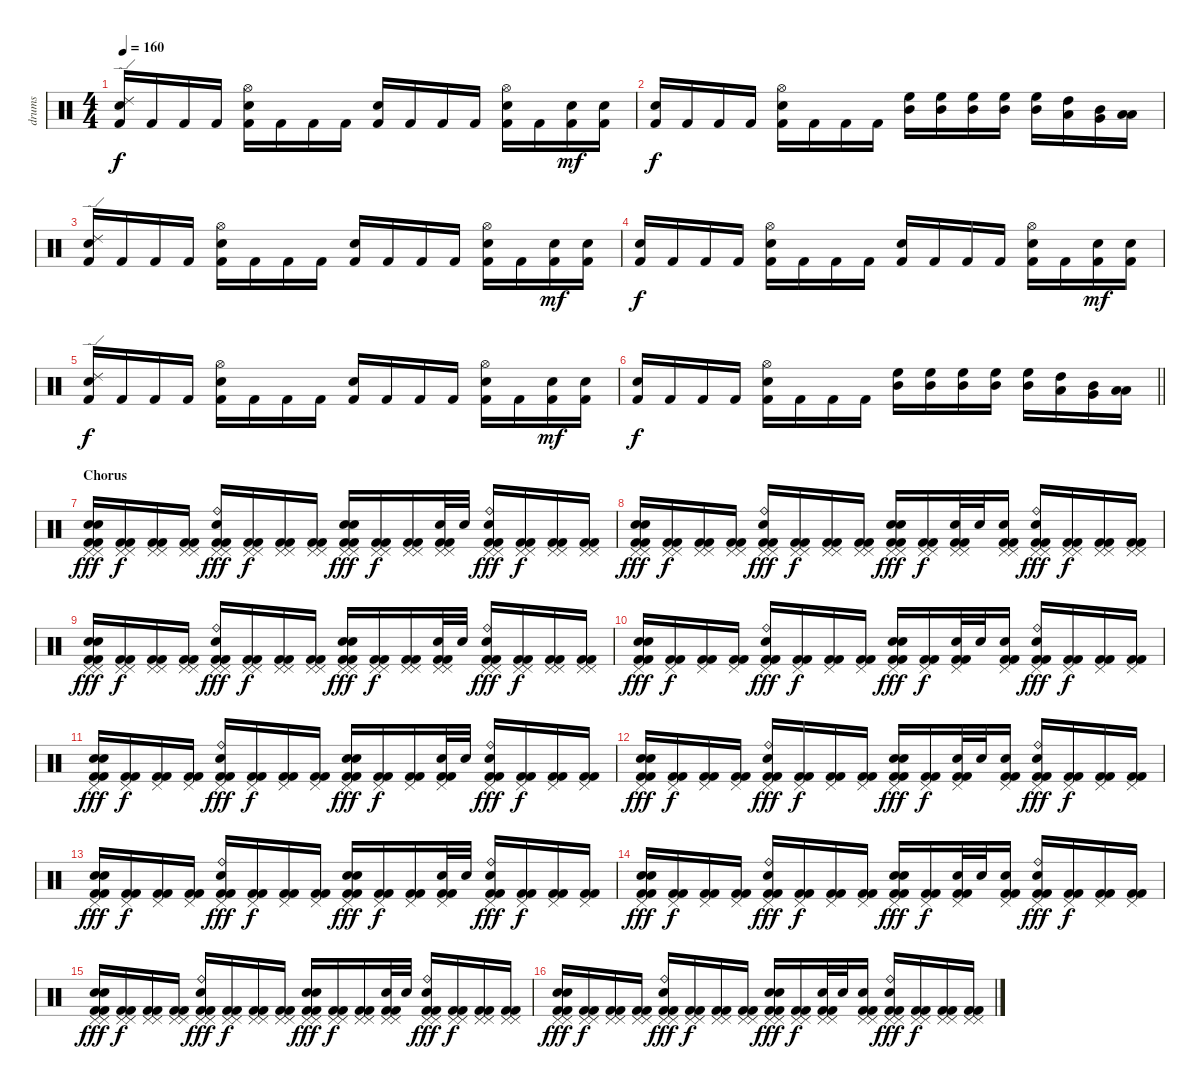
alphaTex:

\track ("drums" "drums") {instrument percussion}
\staff {score}
\articulation defaults
\ts (4 4)
\tempo 160
\clef neutral
\ks c
("Kick (hit) 2" "Electric Snare (hit)" "Ride (edge) 2").16{dy f} "Kick (hit) 2".16 "Kick (hit) 2".16 "Kick (hit) 2".16 ("Kick (hit) 2" "Electric Snare (hit)" "Hi-Hat (open)").16 "Kick (hit) 2".16 "Kick (hit) 2".16 "Kick (hit) 2".16 ("Kick (hit) 2" "Electric Snare (hit)").16 "Kick (hit) 2".16 "Kick (hit) 2".16 "Kick (hit) 2".16 ("Kick (hit) 2" "Electric Snare (hit)" "Hi-Hat (open)").16 "Kick (hit) 2".16 ("Kick (hit) 2" "Electric Snare (hit)").16{dy mf} ("Kick (hit) 2" "Electric Snare (hit)").16 |
("Kick (hit) 2" "Electric Snare (hit)").16{dy f} "Kick (hit) 2".16 "Kick (hit) 2".16 "Kick (hit) 2".16 ("Kick (hit) 2" "Electric Snare (hit)" "Hi-Hat (open)").16 "Kick (hit) 2".16 "Kick (hit) 2".16 "Kick (hit) 2".16 ("High Floor Tom (hit)" "Mid Tom (hit)").16 ("High Floor Tom (hit)" "Mid Tom (hit)").16 ("High Floor Tom (hit)" "Mid Tom (hit)").16 ("High Floor Tom (hit)" "Mid Tom (hit)").16 ("High Floor Tom (hit)" "Mid Tom (hit)").16 ("High Tom (hit)" "Low Tom (hit)").16 ("Mid Tom (hit)" "Very Low Tom (hit)").16 ("Low Tom (hit)" "Low Floor Tom (hit)").16 |
("Kick (hit) 2" "Electric Snare (hit)" "Ride (edge) 2").16 "Kick (hit) 2".16 "Kick (hit) 2".16 "Kick (hit) 2".16 ("Kick (hit) 2" "Electric Snare (hit)" "Hi-Hat (open)").16 "Kick (hit) 2".16 "Kick (hit) 2".16 "Kick (hit) 2".16 ("Kick (hit) 2" "Electric Snare (hit)").16 "Kick (hit) 2".16 "Kick (hit) 2".16 "Kick (hit) 2".16 ("Kick (hit) 2" "Electric Snare (hit)" "Hi-Hat (open)").16 "Kick (hit) 2".16 ("Kick (hit) 2" "Electric Snare (hit)").16{dy mf} ("Kick (hit) 2" "Electric Snare (hit)").16 |
("Kick (hit) 2" "Electric Snare (hit)").16{dy f} "Kick (hit) 2".16 "Kick (hit) 2".16 "Kick (hit) 2".16 ("Kick (hit) 2" "Electric Snare (hit)" "Hi-Hat (open)").16 "Kick (hit) 2".16 "Kick (hit) 2".16 "Kick (hit) 2".16 ("Kick (hit) 2" "Electric Snare (hit)").16 "Kick (hit) 2".16 "Kick (hit) 2".16 "Kick (hit) 2".16 ("Kick (hit) 2" "Electric Snare (hit)" "Hi-Hat (open)").16 "Kick (hit) 2".16 ("Kick (hit) 2" "Electric Snare (hit)").16{dy mf} ("Kick (hit) 2" "Electric Snare (hit)").16 |
("Kick (hit) 2" "Electric Snare (hit)" "Ride (edge) 2").16{dy f} "Kick (hit) 2".16 "Kick (hit) 2".16 "Kick (hit) 2".16 ("Kick (hit) 2" "Electric Snare (hit)" "Hi-Hat (open)").16 "Kick (hit) 2".16 "Kick (hit) 2".16 "Kick (hit) 2".16 ("Kick (hit) 2" "Electric Snare (hit)").16 "Kick (hit) 2".16 "Kick (hit) 2".16 "Kick (hit) 2".16 ("Kick (hit) 2" "Electric Snare (hit)" "Hi-Hat (open)").16 "Kick (hit) 2".16 ("Kick (hit) 2" "Electric Snare (hit)").16{dy mf} ("Kick (hit) 2" "Electric Snare (hit)").16 |
\barLineRight lightlight
("Kick (hit) 2" "Electric Snare (hit)").16{dy f} "Kick (hit) 2".16 "Kick (hit) 2".16 "Kick (hit) 2".16 ("Kick (hit) 2" "Electric Snare (hit)" "Hi-Hat (open)").16 "Kick (hit) 2".16 "Kick (hit) 2".16 "Kick (hit) 2".16 ("High Floor Tom (hit)" "Mid Tom (hit)").16 ("High Floor Tom (hit)" "Mid Tom (hit)").16 ("High Floor Tom (hit)" "Mid Tom (hit)").16 ("High Floor Tom (hit)" "Mid Tom (hit)").16 ("High Floor Tom (hit)" "Mid Tom (hit)").16 ("High Tom (hit)" "Low Tom (hit)").16 ("Mid Tom (hit)" "Very Low Tom (hit)").16 ("Low Tom (hit)" "Low Floor Tom (hit)").16 |
\section ("" "Chorus")
("Electric Snare (hit)" "Electric Snare (hit)" "Pedal Hi-Hat (hit)" "Pedal Hi-Hat (hit)" "Kick (hit) 2" "Kick (hit) 2").16{dy fff} ("Pedal Hi-Hat (hit)" "Pedal Hi-Hat (hit)" "Kick (hit) 2" "Kick (hit) 2").16{dy f} ("Pedal Hi-Hat (hit)" "Pedal Hi-Hat (hit)" "Kick (hit) 2" "Kick (hit) 2").16 ("Pedal Hi-Hat (hit)" "Pedal Hi-Hat (hit)" "Kick (hit) 2" "Kick (hit) 2").16 ("Ride (bell)" "Snare (hit) 2" "Pedal Hi-Hat (hit)" "Pedal Hi-Hat (hit)" "Kick (hit) 2" "Kick (hit) 2").16{dy fff} ("Pedal Hi-Hat (hit)" "Pedal Hi-Hat (hit)" "Kick (hit) 2" "Kick (hit) 2").16{dy f} ("Pedal Hi-Hat (hit)" "Pedal Hi-Hat (hit)" "Kick (hit) 2" "Kick (hit) 2").16 ("Pedal Hi-Hat (hit)" "Pedal Hi-Hat (hit)" "Kick (hit) 2" "Kick (hit) 2").16 ("Electric Snare (hit)" "Electric Snare (hit)" "Pedal Hi-Hat (hit)" "Pedal Hi-Hat (hit)" "Kick (hit) 2" "Kick (hit) 2").16{dy fff} ("Pedal Hi-Hat (hit)" "Pedal Hi-Hat (hit)" "Kick (hit) 2" "Kick (hit) 2").16{dy f} ("Pedal Hi-Hat (hit)" "Pedal Hi-Hat (hit)" "Kick (hit) 2" "Kick (hit) 2").16 ("Electric Snare (hit)" "Pedal Hi-Hat (hit)" "Pedal Hi-Hat (hit)" "Kick (hit) 2" "Kick (hit) 2").32 "Electric Snare (hit)".32 ("Ride (bell)" "Electric Snare (hit)" "Pedal Hi-Hat (hit)" "Pedal Hi-Hat (hit)" "Kick (hit) 2" "Kick (hit) 2").16{dy fff} ("Pedal Hi-Hat (hit)" "Pedal Hi-Hat (hit)" "Kick (hit) 2" "Kick (hit) 2").16{dy f} ("Pedal Hi-Hat (hit)" "Pedal Hi-Hat (hit)" "Kick (hit) 2" "Kick (hit) 2").16 ("Pedal Hi-Hat (hit)" "Pedal Hi-Hat (hit)" "Kick (hit) 2" "Kick (hit) 2").16 |
("Electric Snare (hit)" "Electric Snare (hit)" "Pedal Hi-Hat (hit)" "Pedal Hi-Hat (hit)" "Kick (hit) 2" "Kick (hit) 2").16{dy fff} ("Pedal Hi-Hat (hit)" "Pedal Hi-Hat (hit)" "Kick (hit) 2" "Kick (hit) 2").16{dy f} ("Pedal Hi-Hat (hit)" "Pedal Hi-Hat (hit)" "Kick (hit) 2" "Kick (hit) 2").16 ("Pedal Hi-Hat (hit)" "Pedal Hi-Hat (hit)" "Kick (hit) 2" "Kick (hit) 2").16 ("Ride (bell)" "Snare (hit) 2" "Pedal Hi-Hat (hit)" "Pedal Hi-Hat (hit)" "Kick (hit) 2" "Kick (hit) 2").16{dy fff} ("Pedal Hi-Hat (hit)" "Pedal Hi-Hat (hit)" "Kick (hit) 2" "Kick (hit) 2").16{dy f} ("Pedal Hi-Hat (hit)" "Pedal Hi-Hat (hit)" "Kick (hit) 2" "Kick (hit) 2").16 ("Pedal Hi-Hat (hit)" "Pedal Hi-Hat (hit)" "Kick (hit) 2" "Kick (hit) 2").16 ("Electric Snare (hit)" "Electric Snare (hit)" "Pedal Hi-Hat (hit)" "Pedal Hi-Hat (hit)" "Kick (hit) 2" "Kick (hit) 2").16{dy fff} ("Pedal Hi-Hat (hit)" "Pedal Hi-Hat (hit)" "Kick (hit) 2" "Kick (hit) 2").16{dy f} ("Electric Snare (hit)" "Pedal Hi-Hat (hit)" "Pedal Hi-Hat (hit)" "Kick (hit) 2" "Kick (hit) 2").32 "Electric Snare (hit)".32 ("Electric Snare (hit)" "Pedal Hi-Hat (hit)" "Pedal Hi-Hat (hit)" "Kick (hit) 2" "Kick (hit) 2").16 ("Ride (bell)" "Snare (hit) 2" "Pedal Hi-Hat (hit)" "Pedal Hi-Hat (hit)" "Kick (hit) 2" "Kick (hit) 2").16{dy fff} ("Pedal Hi-Hat (hit)" "Pedal Hi-Hat (hit)" "Kick (hit) 2" "Kick (hit) 2").16{dy f} ("Pedal Hi-Hat (hit)" "Pedal Hi-Hat (hit)" "Kick (hit) 2" "Kick (hit) 2").16 ("Pedal Hi-Hat (hit)" "Pedal Hi-Hat (hit)" "Kick (hit) 2" "Kick (hit) 2").16 |
("Electric Snare (hit)" "Electric Snare (hit)" "Pedal Hi-Hat (hit)" "Pedal Hi-Hat (hit)" "Kick (hit) 2" "Kick (hit) 2").16{dy fff} ("Pedal Hi-Hat (hit)" "Pedal Hi-Hat (hit)" "Kick (hit) 2" "Kick (hit) 2").16{dy f} ("Pedal Hi-Hat (hit)" "Pedal Hi-Hat (hit)" "Kick (hit) 2" "Kick (hit) 2").16 ("Pedal Hi-Hat (hit)" "Pedal Hi-Hat (hit)" "Kick (hit) 2" "Kick (hit) 2").16 ("Ride (bell)" "Snare (hit) 2" "Pedal Hi-Hat (hit)" "Pedal Hi-Hat (hit)" "Kick (hit) 2" "Kick (hit) 2").16{dy fff} ("Pedal Hi-Hat (hit)" "Pedal Hi-Hat (hit)" "Kick (hit) 2" "Kick (hit) 2").16{dy f} ("Pedal Hi-Hat (hit)" "Pedal Hi-Hat (hit)" "Kick (hit) 2" "Kick (hit) 2").16 ("Pedal Hi-Hat (hit)" "Pedal Hi-Hat (hit)" "Kick (hit) 2" "Kick (hit) 2").16 ("Electric Snare (hit)" "Electric Snare (hit)" "Pedal Hi-Hat (hit)" "Pedal Hi-Hat (hit)" "Kick (hit) 2" "Kick (hit) 2").16{dy fff} ("Pedal Hi-Hat (hit)" "Pedal Hi-Hat (hit)" "Kick (hit) 2" "Kick (hit) 2").16{dy f} ("Pedal Hi-Hat (hit)" "Pedal Hi-Hat (hit)" "Kick (hit) 2" "Kick (hit) 2").16 ("Electric Snare (hit)" "Pedal Hi-Hat (hit)" "Pedal Hi-Hat (hit)" "Kick (hit) 2" "Kick (hit) 2").32 "Electric Snare (hit)".32 ("Ride (bell)" "Electric Snare (hit)" "Pedal Hi-Hat (hit)" "Pedal Hi-Hat (hit)" "Kick (hit) 2" "Kick (hit) 2").16{dy fff} ("Pedal Hi-Hat (hit)" "Pedal Hi-Hat (hit)" "Kick (hit) 2" "Kick (hit) 2").16{dy f} ("Pedal Hi-Hat (hit)" "Pedal Hi-Hat (hit)" "Kick (hit) 2" "Kick (hit) 2").16 ("Pedal Hi-Hat (hit)" "Pedal Hi-Hat (hit)" "Kick (hit) 2" "Kick (hit) 2").16 |
("Electric Snare (hit)" "Electric Snare (hit)" "Pedal Hi-Hat (hit)" "Kick (hit) 2" "Kick (hit) 2").16{dy fff} ("Pedal Hi-Hat (hit)" "Kick (hit) 2" "Kick (hit) 2").16{dy f} ("Pedal Hi-Hat (hit)" "Kick (hit) 2" "Kick (hit) 2").16 ("Pedal Hi-Hat (hit)" "Kick (hit) 2" "Kick (hit) 2").16 ("Ride (bell)" "Snare (hit) 2" "Pedal Hi-Hat (hit)" "Kick (hit) 2" "Kick (hit) 2").16{dy fff} ("Pedal Hi-Hat (hit)" "Kick (hit) 2" "Kick (hit) 2").16{dy f} ("Pedal Hi-Hat (hit)" "Kick (hit) 2" "Kick (hit) 2").16 ("Pedal Hi-Hat (hit)" "Kick (hit) 2" "Kick (hit) 2").16 ("Electric Snare (hit)" "Electric Snare (hit)" "Pedal Hi-Hat (hit)" "Kick (hit) 2" "Kick (hit) 2").16{dy fff} ("Pedal Hi-Hat (hit)" "Kick (hit) 2" "Kick (hit) 2").16{dy f} ("Electric Snare (hit)" "Pedal Hi-Hat (hit)" "Kick (hit) 2" "Kick (hit) 2").32 "Electric Snare (hit)".32 ("Electric Snare (hit)" "Pedal Hi-Hat (hit)" "Kick (hit) 2" "Kick (hit) 2").16 ("Ride (bell)" "Snare (hit) 2" "Pedal Hi-Hat (hit)" "Kick (hit) 2" "Kick (hit) 2").16{dy fff} ("Pedal Hi-Hat (hit)" "Kick (hit) 2" "Kick (hit) 2").16{dy f} ("Pedal Hi-Hat (hit)" "Kick (hit) 2" "Kick (hit) 2").16 ("Pedal Hi-Hat (hit)" "Kick (hit) 2" "Kick (hit) 2").16 |
("Electric Snare (hit)" "Electric Snare (hit)" "Pedal Hi-Hat (hit)" "Kick (hit) 2" "Kick (hit) 2").16{dy fff} ("Pedal Hi-Hat (hit)" "Kick (hit) 2" "Kick (hit) 2").16{dy f} ("Pedal Hi-Hat (hit)" "Kick (hit) 2" "Kick (hit) 2").16 ("Pedal Hi-Hat (hit)" "Kick (hit) 2" "Kick (hit) 2").16 ("Ride (bell)" "Snare (hit) 2" "Pedal Hi-Hat (hit)" "Kick (hit) 2" "Kick (hit) 2").16{dy fff} ("Pedal Hi-Hat (hit)" "Kick (hit) 2" "Kick (hit) 2").16{dy f} ("Pedal Hi-Hat (hit)" "Kick (hit) 2" "Kick (hit) 2").16 ("Pedal Hi-Hat (hit)" "Kick (hit) 2" "Kick (hit) 2").16 ("Electric Snare (hit)" "Electric Snare (hit)" "Pedal Hi-Hat (hit)" "Kick (hit) 2" "Kick (hit) 2").16{dy fff} ("Pedal Hi-Hat (hit)" "Kick (hit) 2" "Kick (hit) 2").16{dy f} ("Pedal Hi-Hat (hit)" "Kick (hit) 2" "Kick (hit) 2").16 ("Electric Snare (hit)" "Pedal Hi-Hat (hit)" "Kick (hit) 2" "Kick (hit) 2").32 "Electric Snare (hit)".32 ("Ride (bell)" "Electric Snare (hit)" "Pedal Hi-Hat (hit)" "Kick (hit) 2" "Kick (hit) 2").16{dy fff} ("Pedal Hi-Hat (hit)" "Kick (hit) 2" "Kick (hit) 2").16{dy f} ("Pedal Hi-Hat (hit)" "Kick (hit) 2" "Kick (hit) 2").16 ("Pedal Hi-Hat (hit)" "Kick (hit) 2" "Kick (hit) 2").16 |
("Electric Snare (hit)" "Electric Snare (hit)" "Pedal Hi-Hat (hit)" "Kick (hit) 2" "Kick (hit) 2").16{dy fff} ("Pedal Hi-Hat (hit)" "Kick (hit) 2" "Kick (hit) 2").16{dy f} ("Pedal Hi-Hat (hit)" "Kick (hit) 2" "Kick (hit) 2").16 ("Pedal Hi-Hat (hit)" "Kick (hit) 2" "Kick (hit) 2").16 ("Ride (bell)" "Snare (hit) 2" "Pedal Hi-Hat (hit)" "Kick (hit) 2" "Kick (hit) 2").16{dy fff} ("Pedal Hi-Hat (hit)" "Kick (hit) 2" "Kick (hit) 2").16{dy f} ("Pedal Hi-Hat (hit)" "Kick (hit) 2" "Kick (hit) 2").16 ("Pedal Hi-Hat (hit)" "Kick (hit) 2" "Kick (hit) 2").16 ("Electric Snare (hit)" "Electric Snare (hit)" "Pedal Hi-Hat (hit)" "Kick (hit) 2" "Kick (hit) 2").16{dy fff} ("Pedal Hi-Hat (hit)" "Kick (hit) 2" "Kick (hit) 2").16{dy f} ("Electric Snare (hit)" "Pedal Hi-Hat (hit)" "Kick (hit) 2" "Kick (hit) 2").32 "Electric Snare (hit)".32 ("Electric Snare (hit)" "Pedal Hi-Hat (hit)" "Kick (hit) 2" "Kick (hit) 2").16 ("Ride (bell)" "Snare (hit) 2" "Pedal Hi-Hat (hit)" "Kick (hit) 2" "Kick (hit) 2").16{dy fff} ("Pedal Hi-Hat (hit)" "Kick (hit) 2" "Kick (hit) 2").16{dy f} ("Pedal Hi-Hat (hit)" "Kick (hit) 2" "Kick (hit) 2").16 ("Pedal Hi-Hat (hit)" "Kick (hit) 2" "Kick (hit) 2").16 |
("Electric Snare (hit)" "Electric Snare (hit)" "Pedal Hi-Hat (hit)" "Kick (hit) 2" "Kick (hit) 2").16{dy fff} ("Pedal Hi-Hat (hit)" "Kick (hit) 2" "Kick (hit) 2").16{dy f} ("Pedal Hi-Hat (hit)" "Kick (hit) 2" "Kick (hit) 2").16 ("Pedal Hi-Hat (hit)" "Kick (hit) 2" "Kick (hit) 2").16 ("Ride (bell)" "Snare (hit) 2" "Pedal Hi-Hat (hit)" "Kick (hit) 2" "Kick (hit) 2").16{dy fff} ("Pedal Hi-Hat (hit)" "Kick (hit) 2" "Kick (hit) 2").16{dy f} ("Pedal Hi-Hat (hit)" "Kick (hit) 2" "Kick (hit) 2").16 ("Pedal Hi-Hat (hit)" "Kick (hit) 2" "Kick (hit) 2").16 ("Electric Snare (hit)" "Electric Snare (hit)" "Pedal Hi-Hat (hit)" "Kick (hit) 2" "Kick (hit) 2").16{dy fff} ("Pedal Hi-Hat (hit)" "Kick (hit) 2" "Kick (hit) 2").16{dy f} ("Pedal Hi-Hat (hit)" "Kick (hit) 2" "Kick (hit) 2").16 ("Electric Snare (hit)" "Pedal Hi-Hat (hit)" "Kick (hit) 2" "Kick (hit) 2").32 "Electric Snare (hit)".32 ("Ride (bell)" "Electric Snare (hit)" "Pedal Hi-Hat (hit)" "Kick (hit) 2" "Kick (hit) 2").16{dy fff} ("Pedal Hi-Hat (hit)" "Kick (hit) 2" "Kick (hit) 2").16{dy f} ("Pedal Hi-Hat (hit)" "Kick (hit) 2" "Kick (hit) 2").16 ("Pedal Hi-Hat (hit)" "Kick (hit) 2" "Kick (hit) 2").16 |
("Electric Snare (hit)" "Electric Snare (hit)" "Pedal Hi-Hat (hit)" "Kick (hit) 2" "Kick (hit) 2").16{dy fff} ("Pedal Hi-Hat (hit)" "Kick (hit) 2" "Kick (hit) 2").16{dy f} ("Pedal Hi-Hat (hit)" "Kick (hit) 2" "Kick (hit) 2").16 ("Pedal Hi-Hat (hit)" "Kick (hit) 2" "Kick (hit) 2").16 ("Ride (bell)" "Snare (hit) 2" "Pedal Hi-Hat (hit)" "Kick (hit) 2" "Kick (hit) 2").16{dy fff} ("Pedal Hi-Hat (hit)" "Kick (hit) 2" "Kick (hit) 2").16{dy f} ("Pedal Hi-Hat (hit)" "Kick (hit) 2" "Kick (hit) 2").16 ("Pedal Hi-Hat (hit)" "Kick (hit) 2" "Kick (hit) 2").16 ("Electric Snare (hit)" "Electric Snare (hit)" "Pedal Hi-Hat (hit)" "Kick (hit) 2" "Kick (hit) 2").16{dy fff} ("Pedal Hi-Hat (hit)" "Kick (hit) 2" "Kick (hit) 2").16{dy f} ("Electric Snare (hit)" "Pedal Hi-Hat (hit)" "Kick (hit) 2" "Kick (hit) 2").32 "Electric Snare (hit)".32 ("Electric Snare (hit)" "Pedal Hi-Hat (hit)" "Kick (hit) 2" "Kick (hit) 2").16 ("Ride (bell)" "Snare (hit) 2" "Pedal Hi-Hat (hit)" "Kick (hit) 2" "Kick (hit) 2").16{dy fff} ("Pedal Hi-Hat (hit)" "Kick (hit) 2" "Kick (hit) 2").16{dy f} ("Pedal Hi-Hat (hit)" "Kick (hit) 2" "Kick (hit) 2").16 ("Pedal Hi-Hat (hit)" "Kick (hit) 2" "Kick (hit) 2").16 |
("Electric Snare (hit)" "Electric Snare (hit)" "Pedal Hi-Hat (hit)" "Pedal Hi-Hat (hit)" "Kick (hit) 2" "Kick (hit) 2").16{dy fff} ("Pedal Hi-Hat (hit)" "Pedal Hi-Hat (hit)" "Kick (hit) 2" "Kick (hit) 2").16{dy f} ("Pedal Hi-Hat (hit)" "Pedal Hi-Hat (hit)" "Kick (hit) 2" "Kick (hit) 2").16 ("Pedal Hi-Hat (hit)" "Pedal Hi-Hat (hit)" "Kick (hit) 2" "Kick (hit) 2").16 ("Ride (bell)" "Snare (hit) 2" "Pedal Hi-Hat (hit)" "Pedal Hi-Hat (hit)" "Kick (hit) 2" "Kick (hit) 2").16{dy fff} ("Pedal Hi-Hat (hit)" "Pedal Hi-Hat (hit)" "Kick (hit) 2" "Kick (hit) 2").16{dy f} ("Pedal Hi-Hat (hit)" "Pedal Hi-Hat (hit)" "Kick (hit) 2" "Kick (hit) 2").16 ("Pedal Hi-Hat (hit)" "Pedal Hi-Hat (hit)" "Kick (hit) 2" "Kick (hit) 2").16 ("Electric Snare (hit)" "Electric Snare (hit)" "Pedal Hi-Hat (hit)" "Pedal Hi-Hat (hit)" "Kick (hit) 2" "Kick (hit) 2").16{dy fff} ("Pedal Hi-Hat (hit)" "Pedal Hi-Hat (hit)" "Kick (hit) 2" "Kick (hit) 2").16{dy f} ("Pedal Hi-Hat (hit)" "Pedal Hi-Hat (hit)" "Kick (hit) 2" "Kick (hit) 2").16 ("Electric Snare (hit)" "Pedal Hi-Hat (hit)" "Pedal Hi-Hat (hit)" "Kick (hit) 2" "Kick (hit) 2").32 "Electric Snare (hit)".32 ("Ride (bell)" "Electric Snare (hit)" "Pedal Hi-Hat (hit)" "Pedal Hi-Hat (hit)" "Kick (hit) 2" "Kick (hit) 2").16{dy fff} ("Pedal Hi-Hat (hit)" "Pedal Hi-Hat (hit)" "Kick (hit) 2" "Kick (hit) 2").16{dy f} ("Pedal Hi-Hat (hit)" "Pedal Hi-Hat (hit)" "Kick (hit) 2" "Kick (hit) 2").16 ("Pedal Hi-Hat (hit)" "Pedal Hi-Hat (hit)" "Kick (hit) 2" "Kick (hit) 2").16 |
("Electric Snare (hit)" "Electric Snare (hit)" "Pedal Hi-Hat (hit)" "Pedal Hi-Hat (hit)" "Kick (hit) 2" "Kick (hit) 2").16{dy fff} ("Pedal Hi-Hat (hit)" "Pedal Hi-Hat (hit)" "Kick (hit) 2" "Kick (hit) 2").16{dy f} ("Pedal Hi-Hat (hit)" "Pedal Hi-Hat (hit)" "Kick (hit) 2" "Kick (hit) 2").16 ("Pedal Hi-Hat (hit)" "Pedal Hi-Hat (hit)" "Kick (hit) 2" "Kick (hit) 2").16 ("Ride (bell)" "Snare (hit) 2" "Pedal Hi-Hat (hit)" "Pedal Hi-Hat (hit)" "Kick (hit) 2" "Kick (hit) 2").16{dy fff} ("Pedal Hi-Hat (hit)" "Pedal Hi-Hat (hit)" "Kick (hit) 2" "Kick (hit) 2").16{dy f} ("Pedal Hi-Hat (hit)" "Pedal Hi-Hat (hit)" "Kick (hit) 2" "Kick (hit) 2").16 ("Pedal Hi-Hat (hit)" "Pedal Hi-Hat (hit)" "Kick (hit) 2" "Kick (hit) 2").16 ("Electric Snare (hit)" "Electric Snare (hit)" "Pedal Hi-Hat (hit)" "Pedal Hi-Hat (hit)" "Kick (hit) 2" "Kick (hit) 2").16{dy fff} ("Pedal Hi-Hat (hit)" "Pedal Hi-Hat (hit)" "Kick (hit) 2" "Kick (hit) 2").16{dy f} ("Electric Snare (hit)" "Pedal Hi-Hat (hit)" "Pedal Hi-Hat (hit)" "Kick (hit) 2" "Kick (hit) 2").32 "Electric Snare (hit)".32 ("Electric Snare (hit)" "Pedal Hi-Hat (hit)" "Pedal Hi-Hat (hit)" "Kick (hit) 2" "Kick (hit) 2").16 ("Ride (bell)" "Snare (hit) 2" "Pedal Hi-Hat (hit)" "Pedal Hi-Hat (hit)" "Kick (hit) 2" "Kick (hit) 2").16{dy fff} ("Pedal Hi-Hat (hit)" "Pedal Hi-Hat (hit)" "Kick (hit) 2" "Kick (hit) 2").16{dy f} ("Pedal Hi-Hat (hit)" "Pedal Hi-Hat (hit)" "Kick (hit) 2" "Kick (hit) 2").16 ("Pedal Hi-Hat (hit)" "Pedal Hi-Hat (hit)" "Kick (hit) 2" "Kick (hit) 2").16
